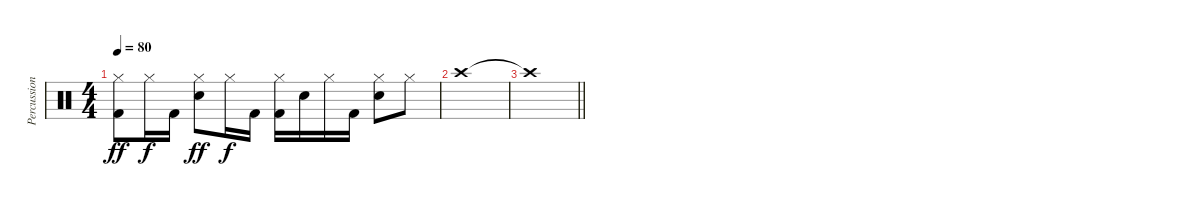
\track ("Percussion (Stieven)" "Percussion") {instrument percussion}
\staff {score}
\articulation defaults
\ts (4 4)
\tempo 80
\clef neutral
\ks c
("Hi-Hat (closed)" "Kick (hit) 2").8{dy ff} "Hi-Hat (closed)".16{dy f} "Kick (hit) 2".16 ("Hi-Hat (closed)" "Snare (hit) 2").8{dy ff} "Hi-Hat (closed)".16{dy f} "Kick (hit) 2".16 ("Hi-Hat (closed)" "Kick (hit) 2").16 "Snare (hit) 2".16 "Hi-Hat (closed)".16 "Kick (hit) 2".16 ("Hi-Hat (closed)" "Snare (hit) 2").8 "Hi-Hat (closed)".8 |
"Crash high (hit)".1 |
\barLineRight lightlight "Crash high (hit)"{t}.1
